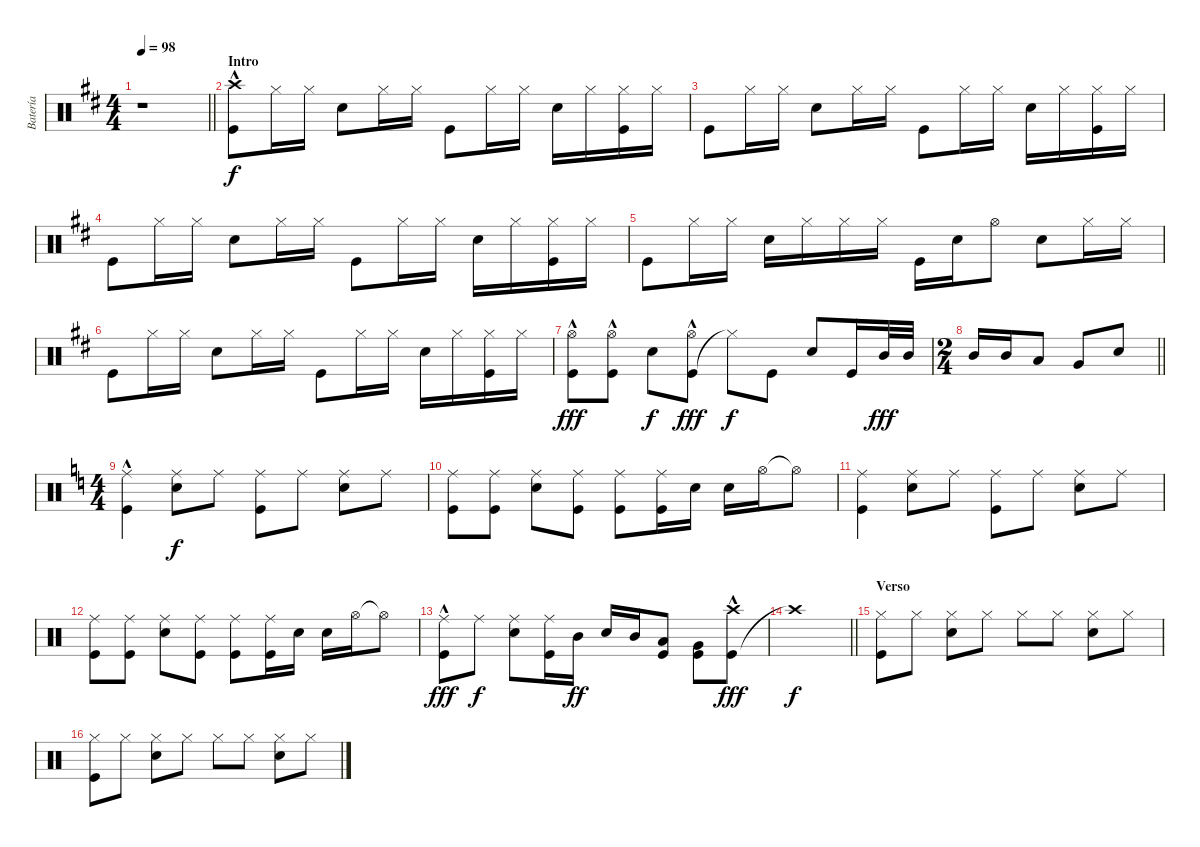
\track ("Batería" "Batería") {instrument percussion}
\staff {score}
\articulation defaults
\ts (4 4)
\tempo 98
\clef neutral
\barLineRight lightlight
\ks bminor
r.1{dy f} |
\section ("" "Intro")
("Kick (hit)" "Crash high (hit)"{hac}).8 "Hi-Hat (closed)".16 "Hi-Hat (closed)".16 "Snare (hit) 2".8 "Hi-Hat (closed)".16 "Hi-Hat (closed)".16 "Kick (hit)".8 "Hi-Hat (closed)".16 "Hi-Hat (closed)".16 "Snare (hit) 2".16 "Hi-Hat (closed)".16 ("Hi-Hat (closed)" "Kick (hit)").16 "Hi-Hat (closed)".16 |
"Kick (hit)".8 "Hi-Hat (closed)".16 "Hi-Hat (closed)".16 "Snare (hit) 2".8 "Hi-Hat (closed)".16 "Hi-Hat (closed)".16 "Kick (hit)".8 "Hi-Hat (closed)".16 "Hi-Hat (closed)".16 "Snare (hit) 2".16 "Hi-Hat (closed)".16 ("Hi-Hat (closed)" "Kick (hit)").16 "Hi-Hat (closed)".16 |
"Kick (hit)".8 "Hi-Hat (closed)".16 "Hi-Hat (closed)".16 "Snare (hit) 2".8 "Hi-Hat (closed)".16 "Hi-Hat (closed)".16 "Kick (hit)".8 "Hi-Hat (closed)".16 "Hi-Hat (closed)".16 "Snare (hit) 2".16 "Hi-Hat (closed)".16 ("Hi-Hat (closed)" "Kick (hit)").16 "Hi-Hat (closed)".16 |
"Kick (hit)".8 "Hi-Hat (closed)".16 "Hi-Hat (closed)".16 "Snare (hit) 2".16 "Hi-Hat (closed)".16 "Hi-Hat (closed)".16 "Hi-Hat (closed)".16 "Kick (hit)".16 "Snare (hit) 2".16 "Hi-Hat (open)".8 "Snare (hit) 2".8 "Hi-Hat (closed)".16 "Hi-Hat (closed)".16 |
"Kick (hit)".8 "Hi-Hat (closed)".16 "Hi-Hat (closed)".16 "Snare (hit) 2".8 "Hi-Hat (closed)".16 "Hi-Hat (closed)".16 "Kick (hit)".8 "Hi-Hat (closed)".16 "Hi-Hat (closed)".16 "Snare (hit) 2".16 "Hi-Hat (closed)".16 ("Hi-Hat (closed)" "Kick (hit)").16 "Hi-Hat (closed)".16 |
("Kick (hit)" "Hi-Hat (open)"{hac}).8{dy fff} ("Kick (hit)" "Hi-Hat (open)"{hac}).8 "Snare (hit) 2".8{dy f} ("Kick (hit)" "Hi-Hat (open)"{hac}).8{dy fff} "Hi-Hat (closed)"{t}.8{dy f} "Kick (hit)".8 "Snare (hit) 2".8 "Kick (hit)".16 "Mid Tom (hit)".32{dy fff} "Mid Tom (hit)".32 |
\ts (2 4)
\barLineRight lightlight "Mid Tom (hit)".16 "Mid Tom (hit)".16 "Low Tom (hit)".8 "Very Low Tom (hit)".8 "Snare (hit) 2".8
|
\ts (4 4)
\section ("" "")
\ks aminor
("Ride (middle)"{hac} "Kick (hit)").4 ("Ride (middle)" "Snare (hit) 2").8{dy f} "Ride (middle)".8 ("Ride (middle)" "Kick (hit)").8 "Ride (middle)".8 ("Ride (middle)" "Snare (hit) 2").8 "Ride (middle)".8 |
("Kick (hit)" "Ride (middle)").8 ("Kick (hit)" "Ride (middle)").8 ("Snare (hit) 2" "Ride (middle)").8 ("Kick (hit)" "Ride (middle)").8 ("Kick (hit)" "Ride (middle)").8 ("Kick (hit)" "Ride (middle)").16 "Snare (hit) 2".16 "Snare (hit) 2".16 "Hi-Hat (open)".16 "Hi-Hat (open)"{t}.8 |
("Ride (middle)" "Kick (hit)").4 ("Ride (middle)" "Snare (hit) 2").8 "Ride (middle)".8 ("Ride (middle)" "Kick (hit)").8 "Ride (middle)".8 ("Ride (middle)" "Snare (hit) 2").8 "Ride (middle)".8 |
("Kick (hit)" "Ride (middle)").8 ("Kick (hit)" "Ride (middle)").8 ("Snare (hit) 2" "Ride (middle)").8 ("Kick (hit)" "Ride (middle)").8 ("Kick (hit)" "Ride (middle)").8 ("Kick (hit)" "Ride (middle)").16 "Snare (hit) 2".16 "Snare (hit) 2".16 "Hi-Hat (open)".16 "Hi-Hat (open)"{t}.8 |
("Ride (middle)"{hac} "Kick (hit)").8{dy fff} "Ride (middle)".8{dy f} ("Ride (middle)" "Snare (hit) 2").8 ("Ride (middle)" "Kick (hit)").16 "Mid Tom (hit)".16{dy ff} "Snare (hit) 2".16 "Mid Tom (hit)".16 ("Low Tom (hit)" "Kick (hit)").8 ("Very Low Tom (hit)" "Kick (hit)").8 ("Kick (hit)" "Crash high (hit)"{hac}).8{dy fff} |
\barLineRight lightlight "Crash high (hit)"{t}.1{dy f}
|
\section ("" "Verso")
("Hi-Hat (closed)" "Kick (hit)").8 "Hi-Hat (closed)".8 ("Hi-Hat (closed)" "Snare (hit) 2").8 "Hi-Hat (closed)".8 "Hi-Hat (closed)".8 "Hi-Hat (closed)".8 ("Hi-Hat (closed)" "Snare (hit) 2").8 "Hi-Hat (closed)".8 |
("Hi-Hat (closed)" "Kick (hit)").8 "Hi-Hat (closed)".8 ("Hi-Hat (closed)" "Snare (hit) 2").8 "Hi-Hat (closed)".8 "Hi-Hat (closed)".8 "Hi-Hat (closed)".8 ("Hi-Hat (closed)" "Snare (hit) 2").8 "Hi-Hat (closed)".8
